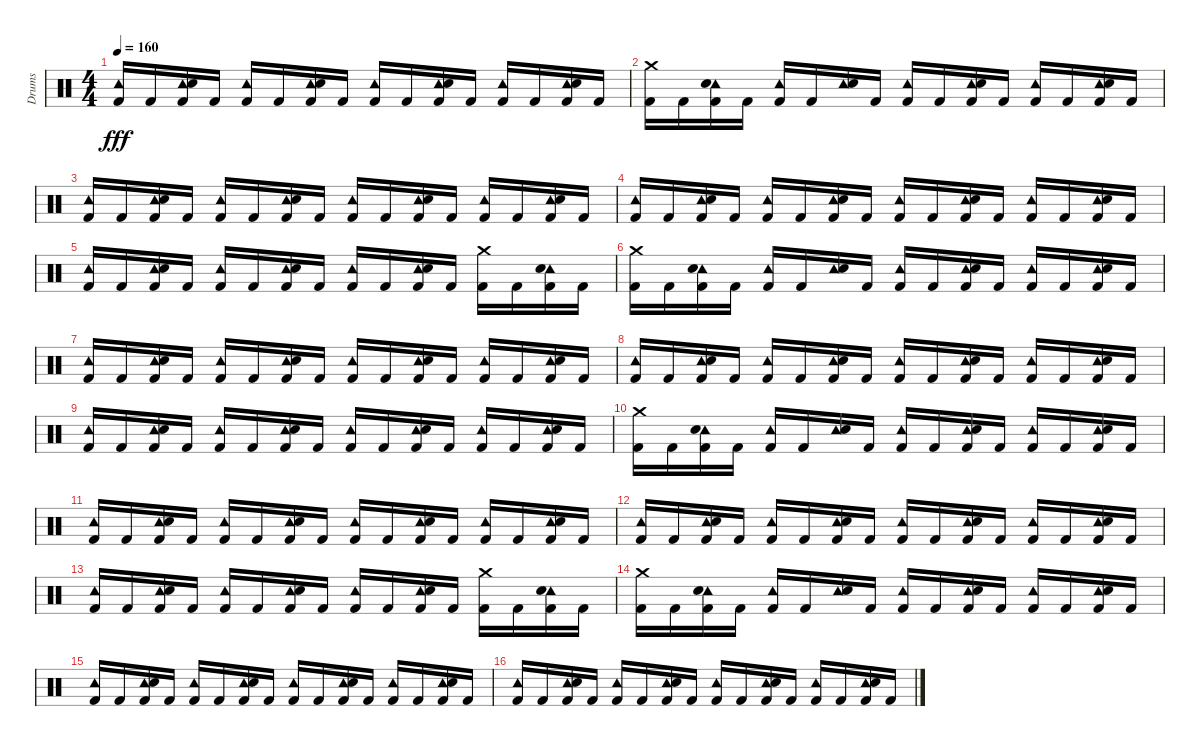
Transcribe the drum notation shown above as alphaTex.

\track ("Drums" "Drums") {instrument percussion}
\staff {score}
\articulation defaults
\ts (4 4)
\tempo 160
\clef neutral
\ks c
("Kick (hit) 2" "Tambourine (hit)").16{dy fff} "Kick (hit) 2".16 ("Kick (hit) 2" "Tambourine (hit)" "Electric Snare (hit)").16 "Kick (hit) 2".16 ("Kick (hit) 2" "Tambourine (hit)").16 "Kick (hit) 2".16 ("Kick (hit) 2" "Tambourine (hit)" "Electric Snare (hit)").16 "Kick (hit) 2".16 ("Kick (hit) 2" "Tambourine (hit)").16 "Kick (hit) 2".16 ("Kick (hit) 2" "Tambourine (hit)" "Electric Snare (hit)").16 "Kick (hit) 2".16 ("Kick (hit) 2" "Tambourine (hit)").16 "Kick (hit) 2".16 ("Kick (hit) 2" "Tambourine (hit)" "Electric Snare (hit)").16 "Kick (hit) 2".16 |
("Crash medium (hit)" "Kick (hit) 2").16 "Kick (hit) 2".16 ("Kick (hit) 2" "Tambourine (hit)" "Electric Snare (hit)").16 "Kick (hit) 2".16 ("Kick (hit) 2" "Tambourine (hit)").16 "Kick (hit) 2".16 ("Tambourine (hit)" "Electric Snare (hit)").16 "Kick (hit) 2".16 ("Kick (hit) 2" "Tambourine (hit)").16 "Kick (hit) 2".16 ("Kick (hit) 2" "Tambourine (hit)" "Electric Snare (hit)").16 "Kick (hit) 2".16 ("Kick (hit) 2" "Tambourine (hit)").16 "Kick (hit) 2".16 ("Kick (hit) 2" "Tambourine (hit)" "Electric Snare (hit)").16 "Kick (hit) 2".16 |
("Kick (hit) 2" "Tambourine (hit)").16 "Kick (hit) 2".16 ("Kick (hit) 2" "Tambourine (hit)" "Electric Snare (hit)").16 "Kick (hit) 2".16 ("Kick (hit) 2" "Tambourine (hit)").16 "Kick (hit) 2".16 ("Kick (hit) 2" "Tambourine (hit)" "Electric Snare (hit)").16 "Kick (hit) 2".16 ("Kick (hit) 2" "Tambourine (hit)").16 "Kick (hit) 2".16 ("Kick (hit) 2" "Tambourine (hit)" "Electric Snare (hit)").16 "Kick (hit) 2".16 ("Kick (hit) 2" "Tambourine (hit)").16 "Kick (hit) 2".16 ("Kick (hit) 2" "Tambourine (hit)" "Electric Snare (hit)").16 "Kick (hit) 2".16 |
("Kick (hit) 2" "Tambourine (hit)").16 "Kick (hit) 2".16 ("Kick (hit) 2" "Tambourine (hit)" "Electric Snare (hit)").16 "Kick (hit) 2".16 ("Kick (hit) 2" "Tambourine (hit)").16 "Kick (hit) 2".16 ("Kick (hit) 2" "Tambourine (hit)" "Electric Snare (hit)").16 "Kick (hit) 2".16 ("Kick (hit) 2" "Tambourine (hit)").16 "Kick (hit) 2".16 ("Kick (hit) 2" "Tambourine (hit)" "Electric Snare (hit)").16 "Kick (hit) 2".16 ("Kick (hit) 2" "Tambourine (hit)").16 "Kick (hit) 2".16 ("Kick (hit) 2" "Tambourine (hit)" "Electric Snare (hit)").16 "Kick (hit) 2".16 |
("Kick (hit) 2" "Tambourine (hit)").16 "Kick (hit) 2".16 ("Kick (hit) 2" "Tambourine (hit)" "Electric Snare (hit)").16 "Kick (hit) 2".16 ("Kick (hit) 2" "Tambourine (hit)").16 "Kick (hit) 2".16 ("Kick (hit) 2" "Tambourine (hit)" "Electric Snare (hit)").16 "Kick (hit) 2".16 ("Kick (hit) 2" "Tambourine (hit)").16 "Kick (hit) 2".16 ("Kick (hit) 2" "Tambourine (hit)" "Electric Snare (hit)").16 "Kick (hit) 2".16 ("Crash medium (hit)" "Kick (hit) 2").16 "Kick (hit) 2".16 ("Kick (hit) 2" "Tambourine (hit)" "Electric Snare (hit)").16 "Kick (hit) 2".16 |
("Crash medium (hit)" "Kick (hit) 2").16 "Kick (hit) 2".16 ("Kick (hit) 2" "Tambourine (hit)" "Electric Snare (hit)").16 "Kick (hit) 2".16 ("Kick (hit) 2" "Tambourine (hit)").16 "Kick (hit) 2".16 ("Tambourine (hit)" "Electric Snare (hit)").16 "Kick (hit) 2".16 ("Kick (hit) 2" "Tambourine (hit)").16 "Kick (hit) 2".16 ("Kick (hit) 2" "Tambourine (hit)" "Electric Snare (hit)").16 "Kick (hit) 2".16 ("Kick (hit) 2" "Tambourine (hit)").16 "Kick (hit) 2".16 ("Kick (hit) 2" "Tambourine (hit)" "Electric Snare (hit)").16 "Kick (hit) 2".16 |
("Kick (hit) 2" "Tambourine (hit)").16 "Kick (hit) 2".16 ("Kick (hit) 2" "Tambourine (hit)" "Electric Snare (hit)").16 "Kick (hit) 2".16 ("Kick (hit) 2" "Tambourine (hit)").16 "Kick (hit) 2".16 ("Kick (hit) 2" "Tambourine (hit)" "Electric Snare (hit)").16 "Kick (hit) 2".16 ("Kick (hit) 2" "Tambourine (hit)").16 "Kick (hit) 2".16 ("Kick (hit) 2" "Tambourine (hit)" "Electric Snare (hit)").16 "Kick (hit) 2".16 ("Kick (hit) 2" "Tambourine (hit)").16 "Kick (hit) 2".16 ("Kick (hit) 2" "Tambourine (hit)" "Electric Snare (hit)").16 "Kick (hit) 2".16 |
("Kick (hit) 2" "Tambourine (hit)").16 "Kick (hit) 2".16 ("Kick (hit) 2" "Tambourine (hit)" "Electric Snare (hit)").16 "Kick (hit) 2".16 ("Kick (hit) 2" "Tambourine (hit)").16 "Kick (hit) 2".16 ("Kick (hit) 2" "Tambourine (hit)" "Electric Snare (hit)").16 "Kick (hit) 2".16 ("Kick (hit) 2" "Tambourine (hit)").16 "Kick (hit) 2".16 ("Kick (hit) 2" "Tambourine (hit)" "Electric Snare (hit)").16 "Kick (hit) 2".16 ("Kick (hit) 2" "Tambourine (hit)").16 "Kick (hit) 2".16 ("Kick (hit) 2" "Tambourine (hit)" "Electric Snare (hit)").16 "Kick (hit) 2".16 |
("Kick (hit) 2" "Tambourine (hit)").16 "Kick (hit) 2".16 ("Kick (hit) 2" "Tambourine (hit)" "Electric Snare (hit)").16 "Kick (hit) 2".16 ("Kick (hit) 2" "Tambourine (hit)").16 "Kick (hit) 2".16 ("Kick (hit) 2" "Tambourine (hit)" "Electric Snare (hit)").16 "Kick (hit) 2".16 ("Kick (hit) 2" "Tambourine (hit)").16 "Kick (hit) 2".16 ("Kick (hit) 2" "Tambourine (hit)" "Electric Snare (hit)").16 "Kick (hit) 2".16 ("Kick (hit) 2" "Tambourine (hit)").16 "Kick (hit) 2".16 ("Kick (hit) 2" "Tambourine (hit)" "Electric Snare (hit)").16 "Kick (hit) 2".16 |
("Crash medium (hit)" "Kick (hit) 2").16 "Kick (hit) 2".16 ("Kick (hit) 2" "Tambourine (hit)" "Electric Snare (hit)").16 "Kick (hit) 2".16 ("Kick (hit) 2" "Tambourine (hit)").16 "Kick (hit) 2".16 ("Tambourine (hit)" "Electric Snare (hit)").16 "Kick (hit) 2".16 ("Kick (hit) 2" "Tambourine (hit)").16 "Kick (hit) 2".16 ("Kick (hit) 2" "Tambourine (hit)" "Electric Snare (hit)").16 "Kick (hit) 2".16 ("Kick (hit) 2" "Tambourine (hit)").16 "Kick (hit) 2".16 ("Kick (hit) 2" "Tambourine (hit)" "Electric Snare (hit)").16 "Kick (hit) 2".16 |
("Kick (hit) 2" "Tambourine (hit)").16 "Kick (hit) 2".16 ("Kick (hit) 2" "Tambourine (hit)" "Electric Snare (hit)").16 "Kick (hit) 2".16 ("Kick (hit) 2" "Tambourine (hit)").16 "Kick (hit) 2".16 ("Kick (hit) 2" "Tambourine (hit)" "Electric Snare (hit)").16 "Kick (hit) 2".16 ("Kick (hit) 2" "Tambourine (hit)").16 "Kick (hit) 2".16 ("Kick (hit) 2" "Tambourine (hit)" "Electric Snare (hit)").16 "Kick (hit) 2".16 ("Kick (hit) 2" "Tambourine (hit)").16 "Kick (hit) 2".16 ("Kick (hit) 2" "Tambourine (hit)" "Electric Snare (hit)").16 "Kick (hit) 2".16 |
("Kick (hit) 2" "Tambourine (hit)").16 "Kick (hit) 2".16 ("Kick (hit) 2" "Tambourine (hit)" "Electric Snare (hit)").16 "Kick (hit) 2".16 ("Kick (hit) 2" "Tambourine (hit)").16 "Kick (hit) 2".16 ("Kick (hit) 2" "Tambourine (hit)" "Electric Snare (hit)").16 "Kick (hit) 2".16 ("Kick (hit) 2" "Tambourine (hit)").16 "Kick (hit) 2".16 ("Kick (hit) 2" "Tambourine (hit)" "Electric Snare (hit)").16 "Kick (hit) 2".16 ("Kick (hit) 2" "Tambourine (hit)").16 "Kick (hit) 2".16 ("Kick (hit) 2" "Tambourine (hit)" "Electric Snare (hit)").16 "Kick (hit) 2".16 |
("Kick (hit) 2" "Tambourine (hit)").16 "Kick (hit) 2".16 ("Kick (hit) 2" "Tambourine (hit)" "Electric Snare (hit)").16 "Kick (hit) 2".16 ("Kick (hit) 2" "Tambourine (hit)").16 "Kick (hit) 2".16 ("Kick (hit) 2" "Tambourine (hit)" "Electric Snare (hit)").16 "Kick (hit) 2".16 ("Kick (hit) 2" "Tambourine (hit)").16 "Kick (hit) 2".16 ("Kick (hit) 2" "Tambourine (hit)" "Electric Snare (hit)").16 "Kick (hit) 2".16 ("Crash medium (hit)" "Kick (hit) 2").16 "Kick (hit) 2".16 ("Kick (hit) 2" "Tambourine (hit)" "Electric Snare (hit)").16 "Kick (hit) 2".16 |
("Crash medium (hit)" "Kick (hit) 2").16 "Kick (hit) 2".16 ("Kick (hit) 2" "Tambourine (hit)" "Electric Snare (hit)").16 "Kick (hit) 2".16 ("Kick (hit) 2" "Tambourine (hit)").16 "Kick (hit) 2".16 ("Tambourine (hit)" "Electric Snare (hit)").16 "Kick (hit) 2".16 ("Kick (hit) 2" "Tambourine (hit)").16 "Kick (hit) 2".16 ("Kick (hit) 2" "Tambourine (hit)" "Electric Snare (hit)").16 "Kick (hit) 2".16 ("Kick (hit) 2" "Tambourine (hit)").16 "Kick (hit) 2".16 ("Kick (hit) 2" "Tambourine (hit)" "Electric Snare (hit)").16 "Kick (hit) 2".16 |
("Kick (hit) 2" "Tambourine (hit)").16 "Kick (hit) 2".16 ("Kick (hit) 2" "Tambourine (hit)" "Electric Snare (hit)").16 "Kick (hit) 2".16 ("Kick (hit) 2" "Tambourine (hit)").16 "Kick (hit) 2".16 ("Kick (hit) 2" "Tambourine (hit)" "Electric Snare (hit)").16 "Kick (hit) 2".16 ("Kick (hit) 2" "Tambourine (hit)").16 "Kick (hit) 2".16 ("Kick (hit) 2" "Tambourine (hit)" "Electric Snare (hit)").16 "Kick (hit) 2".16 ("Kick (hit) 2" "Tambourine (hit)").16 "Kick (hit) 2".16 ("Kick (hit) 2" "Tambourine (hit)" "Electric Snare (hit)").16 "Kick (hit) 2".16 |
("Kick (hit) 2" "Tambourine (hit)").16 "Kick (hit) 2".16 ("Kick (hit) 2" "Tambourine (hit)" "Electric Snare (hit)").16 "Kick (hit) 2".16 ("Kick (hit) 2" "Tambourine (hit)").16 "Kick (hit) 2".16 ("Kick (hit) 2" "Tambourine (hit)" "Electric Snare (hit)").16 "Kick (hit) 2".16 ("Kick (hit) 2" "Tambourine (hit)").16 "Kick (hit) 2".16 ("Kick (hit) 2" "Tambourine (hit)" "Electric Snare (hit)").16 "Kick (hit) 2".16 ("Kick (hit) 2" "Tambourine (hit)").16 "Kick (hit) 2".16 ("Kick (hit) 2" "Tambourine (hit)" "Electric Snare (hit)").16 "Kick (hit) 2".16
